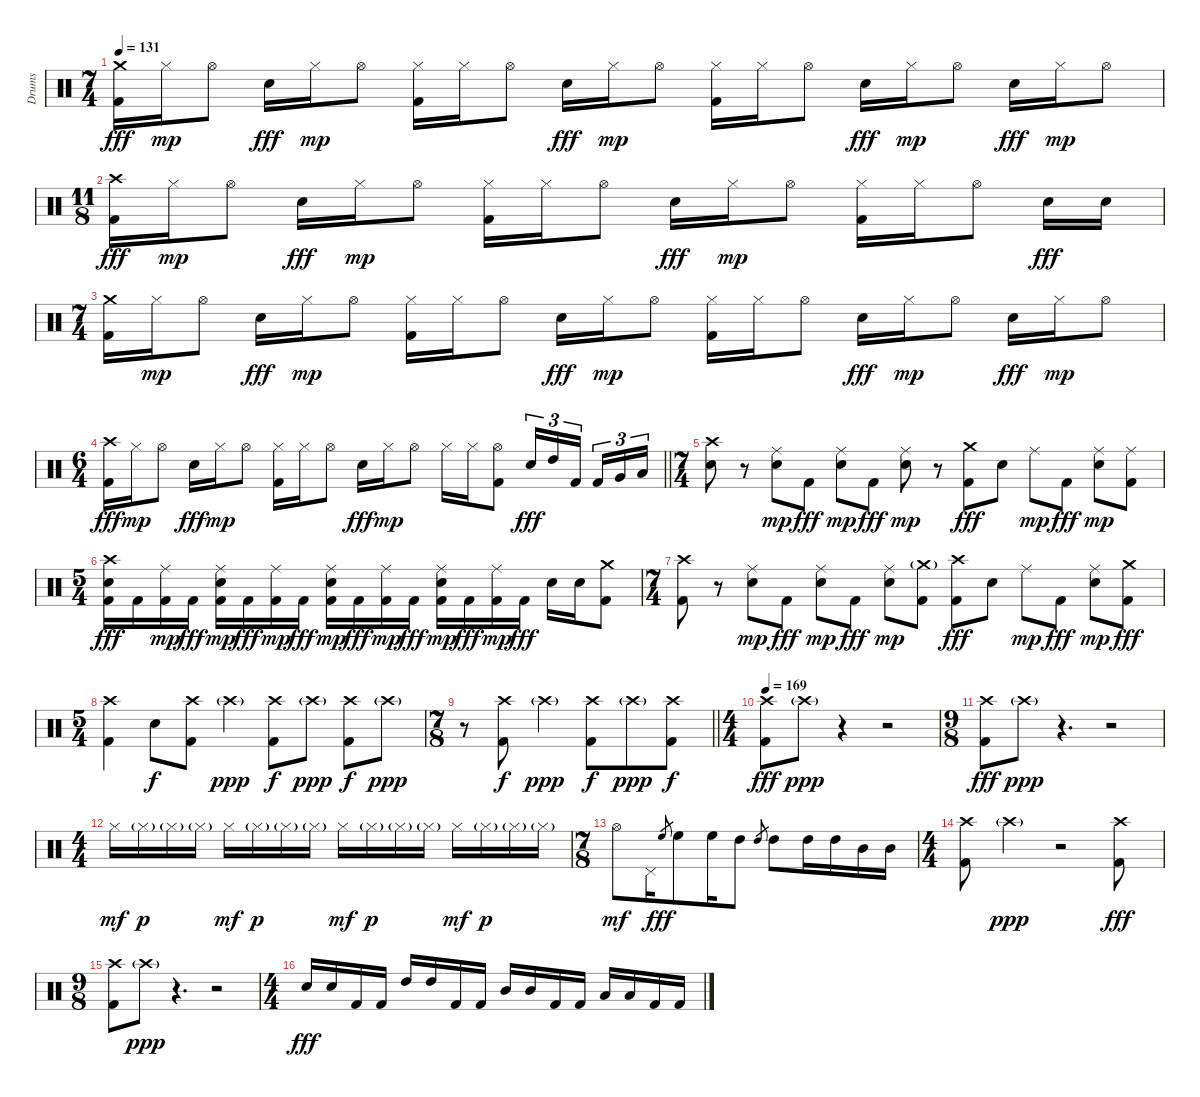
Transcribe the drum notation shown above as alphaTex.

\track ("Drums" "Drums") {instrument percussion}
\staff {score}
\articulation defaults
\ts (7 4)
\tempo 131
\clef neutral
\ks c
("Kick (hit) 2" "Crash medium (hit)").16{dy fff} "Hi-Hat (closed)".16{dy mp} "Hi-Hat (open)".8 "Electric Snare (hit)".16{dy fff} "Hi-Hat (closed)".16{dy mp} "Hi-Hat (open)".8 ("Kick (hit) 2" "Hi-Hat (closed)").16 "Hi-Hat (closed)".16 "Hi-Hat (open)".8 "Electric Snare (hit)".16{dy fff} "Hi-Hat (closed)".16{dy mp} "Hi-Hat (open)".8 ("Kick (hit) 2" "Hi-Hat (closed)").16 "Hi-Hat (closed)".16 "Hi-Hat (open)".8 "Electric Snare (hit)".16{dy fff} "Hi-Hat (closed)".16{dy mp} "Hi-Hat (open)".8 "Electric Snare (hit)".16{dy fff} "Hi-Hat (closed)".16{dy mp} "Hi-Hat (open)".8 |
\ts (11 8)
("Kick (hit) 2" "Crash high (hit)").16{dy fff} "Hi-Hat (closed)".16{dy mp} "Hi-Hat (open)".8 "Electric Snare (hit)".16{dy fff} "Hi-Hat (closed)".16{dy mp} "Hi-Hat (open)".8 ("Kick (hit) 2" "Hi-Hat (closed)").16 "Hi-Hat (closed)".16 "Hi-Hat (open)".8 "Electric Snare (hit)".16{dy fff} "Hi-Hat (closed)".16{dy mp} "Hi-Hat (open)".8 ("Kick (hit) 2" "Hi-Hat (closed)").16 "Hi-Hat (closed)".16 "Hi-Hat (open)".8 "Electric Snare (hit)".16{dy fff} "Electric Snare (hit)".16 |
\ts (7 4)
("Kick (hit) 2" "Crash medium (hit)").16 "Hi-Hat (closed)".16{dy mp} "Hi-Hat (open)".8 "Electric Snare (hit)".16{dy fff} "Hi-Hat (closed)".16{dy mp} "Hi-Hat (open)".8 ("Kick (hit) 2" "Hi-Hat (closed)").16 "Hi-Hat (closed)".16 "Hi-Hat (open)".8 "Electric Snare (hit)".16{dy fff} "Hi-Hat (closed)".16{dy mp} "Hi-Hat (open)".8 ("Kick (hit) 2" "Hi-Hat (closed)").16 "Hi-Hat (closed)".16 "Hi-Hat (open)".8 "Electric Snare (hit)".16{dy fff} "Hi-Hat (closed)".16{dy mp} "Hi-Hat (open)".8 "Electric Snare (hit)".16{dy fff} "Hi-Hat (closed)".16{dy mp} "Hi-Hat (open)".8 |
\ts (6 4)
\barLineRight lightlight
("Kick (hit) 2" "Crash high (hit)").16{dy fff} "Hi-Hat (closed)".16{dy mp} "Hi-Hat (open)".8 "Electric Snare (hit)".16{dy fff} "Hi-Hat (closed)".16{dy mp} "Hi-Hat (open)".8 ("Kick (hit) 2" "Hi-Hat (closed)").16 "Hi-Hat (closed)".16 "Hi-Hat (open)".8 "Electric Snare (hit)".16{dy fff} "Hi-Hat (closed)".16{dy mp} "Hi-Hat (open)".8 "Hi-Hat (closed)".16 "Hi-Hat (closed)".16 ("Kick (hit) 2" "Hi-Hat (open)").8 "Electric Snare (hit)".16{tu (3 2) dy fff} "High Tom (hit)".16{tu (3 2)} "Kick (hit) 2".16{tu (3 2) beam splitsecondary} "Kick (hit) 2".16{tu (3 2)} "Very Low Tom (hit)".16{tu (3 2)} "Low Floor Tom (hit)".16{tu (3 2)} |
\ts (7 4)
("Electric Snare (hit)" "Crash high (hit)").8 r.8 ("Electric Snare (hit)" "Ride (middle)").8{dy mp} "Kick (hit) 2".8{dy fff} ("Electric Snare (hit)" "Ride (middle)").8{dy mp} "Kick (hit) 2".8{dy fff} ("Electric Snare (hit)" "Ride (middle)").8{dy mp} r.8 ("Kick (hit) 2" "Crash medium (hit)").8{dy fff} "Electric Snare (hit)".8 "Ride (middle)".8{dy mp} "Kick (hit) 2".8{dy fff} ("Electric Snare (hit)" "Ride (middle)").8{dy mp} ("Kick (hit) 2" "Ride (middle)").8 |
\ts (5 4)
("Kick (hit) 2" "Electric Snare (hit)" "Crash high (hit)").16{dy fff} "Kick (hit) 2".16 ("Kick (hit) 2" "Ride (middle)").16{dy mp} "Kick (hit) 2".16{dy fff} ("Kick (hit) 2" "Electric Snare (hit)" "Ride (middle)").16{dy mp} "Kick (hit) 2".16{dy fff} ("Kick (hit) 2" "Ride (middle)").16{dy mp} "Kick (hit) 2".16{dy fff} ("Kick (hit) 2" "Electric Snare (hit)" "Ride (middle)").16{dy mp} "Kick (hit) 2".16{dy fff} ("Kick (hit) 2" "Ride (middle)").16{dy mp} "Kick (hit) 2".16{dy fff} ("Kick (hit) 2" "Electric Snare (hit)" "Ride (middle)").16{dy mp} "Kick (hit) 2".16{dy fff} ("Kick (hit) 2" "Ride (middle)").16{dy mp} "Kick (hit) 2".16{dy fff} "Electric Snare (hit)".16 "Electric Snare (hit)".16 ("Kick (hit) 2" "Crash medium (hit)").8 |
\ts (7 4)
("Kick (hit) 2" "Crash high (hit)").8 r.8 ("Electric Snare (hit)" "Ride (middle)").8{dy mp} "Kick (hit) 2".8{dy fff} ("Electric Snare (hit)" "Ride (middle)").8{dy mp} "Kick (hit) 2".8{dy fff} ("Electric Snare (hit)" "Ride (middle)").8{dy mp} ("Kick (hit) 2" "Crash medium (hit)"{g}).8 ("Kick (hit) 2" "Crash high (hit)").8{dy fff} "Electric Snare (hit)".8 "Ride (middle)".8{dy mp} "Kick (hit) 2".8{dy fff} ("Electric Snare (hit)" "Ride (middle)").8{dy mp} ("Kick (hit) 2" "Crash medium (hit)").8{dy fff} |
\ts (5 4)
("Kick (hit) 2" "Crash high (hit)").4 "Electric Snare (hit)".8{dy f} ("Kick (hit) 2" "Crash high (hit)").8 "Crash high (hit)"{g}.4{dy ppp} ("Kick (hit) 2" "Crash high (hit)").8{dy f} "Crash high (hit)"{g}.8{dy ppp} ("Kick (hit) 2" "Crash high (hit)").8{dy f} "Crash high (hit)"{g}.8{dy ppp} |
\ts (7 8)
\barLineRight lightlight
r.8 ("Kick (hit) 2" "Crash high (hit)").8{dy f} "Crash high (hit)"{g}.4{dy ppp} ("Kick (hit) 2" "Crash high (hit)").8{dy f} "Crash high (hit)"{g}.8{dy ppp} ("Kick (hit) 2" "Crash high (hit)").8{dy f} |
\ts (4 4)
\tempo 169
("Kick (hit) 2" "Crash high (hit)").8{dy fff} "Crash high (hit)"{g}.8{dy ppp} r.4 r.2 |
\ts (9 8)
("Kick (hit) 2" "Crash high (hit)").8{dy fff} "Crash high (hit)"{g}.8{dy ppp} r.4{d} r.2 |
\ts (4 4)
"Hi-Hat (closed)".16{dy mf} "Hi-Hat (closed)"{g}.16{dy p} "Hi-Hat (closed)"{g}.16 "Hi-Hat (closed)"{g}.16 "Hi-Hat (closed)".16{dy mf} "Hi-Hat (closed)"{g}.16{dy p} "Hi-Hat (closed)"{g}.16 "Hi-Hat (closed)"{g}.16 "Hi-Hat (closed)".16{dy mf} "Hi-Hat (closed)"{g}.16{dy p} "Hi-Hat (closed)"{g}.16 "Hi-Hat (closed)"{g}.16 "Hi-Hat (closed)".16{dy mf} "Hi-Hat (closed)"{g}.16{dy p} "Hi-Hat (closed)"{g}.16 "Hi-Hat (closed)"{g}.16 |
\ts (7 8)
"Hi-Hat (open)".8{dy mf} "Pedal Hi-Hat (hit)".16 "High Floor Tom (hit)".8{gr dy fff} "High Floor Tom (hit)".8 "High Floor Tom (hit)".16 "High Tom (hit)".8 "High Tom (hit)".8{gr} "High Tom (hit)".8 "High Tom (hit)".16 "High Tom (hit)".16 "Mid Tom (hit)".16 "Mid Tom (hit)".16 |
\ts (4 4)
("Kick (hit) 2" "Crash high (hit)").8 "Crash high (hit)"{g}.4{dy ppp} r.2 ("Kick (hit) 2" "Crash high (hit)").8{dy fff} |
\ts (9 8)
("Kick (hit) 2" "Crash high (hit)").8 "Crash high (hit)"{g}.8{dy ppp} r.4{d} r.2 |
\ts (4 4)
"Electric Snare (hit)".16{dy fff} "Electric Snare (hit)".16 "Kick (hit) 2".16 "Kick (hit) 2".16 "High Tom (hit)".16 "High Tom (hit)".16 "Kick (hit) 2".16 "Kick (hit) 2".16 "Mid Tom (hit)".16 "Mid Tom (hit)".16 "Kick (hit) 2".16 "Kick (hit) 2".16 "Low Tom (hit)".16 "Low Tom (hit)".16 "Kick (hit) 2".16 "Kick (hit) 2".16
